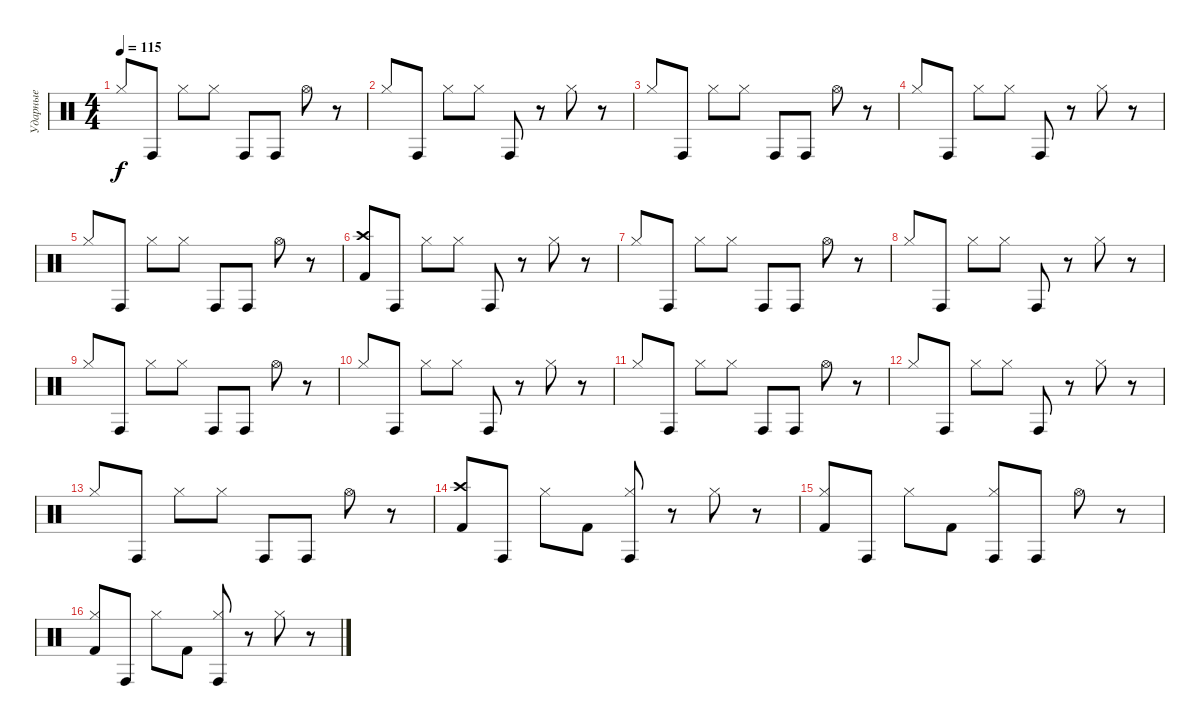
\track ("Ударные" "Ударные") {instrument percussion}
\staff {score}
\articulation defaults
\ts (4 4)
\tempo 115
\clef neutral
\ks c "Hi-Hat (closed)".8{dy f} "Conga high (hit)".8 "Hi-Hat (closed)".8 "Hi-Hat (closed)".8 "Conga high (hit)".8 "Conga high (hit)".8 "Hi-Hat (open)".8
r.8 |
"Hi-Hat (closed)".8 "Conga high (hit)".8 "Hi-Hat (closed)".8 "Hi-Hat (closed)".8 "Conga high (hit)".8 r.8 "Hi-Hat (closed)".8 r.8 |
"Hi-Hat (closed)".8 "Conga high (hit)".8 "Hi-Hat (closed)".8 "Hi-Hat (closed)".8 "Conga high (hit)".8 "Conga high (hit)".8 "Hi-Hat (open)".8 r.8 |
"Hi-Hat (closed)".8 "Conga high (hit)".8 "Hi-Hat (closed)".8 "Hi-Hat (closed)".8 "Conga high (hit)".8 r.8 "Hi-Hat (closed)".8 r.8 |
"Hi-Hat (closed)".8 "Conga high (hit)".8 "Hi-Hat (closed)".8 "Hi-Hat (closed)".8 "Conga high (hit)".8 "Conga high (hit)".8 "Hi-Hat (open)".8 r.8 |
("Crash high (hit)" "Kick (hit) 2").8 "Conga high (hit)".8 "Hi-Hat (closed)".8 "Hi-Hat (closed)".8 "Conga high (hit)".8 r.8 "Hi-Hat (closed)".8 r.8 |
"Hi-Hat (closed)".8 "Conga high (hit)".8 "Hi-Hat (closed)".8 "Hi-Hat (closed)".8 "Conga high (hit)".8 "Conga high (hit)".8 "Hi-Hat (open)".8 r.8 |
"Hi-Hat (closed)".8 "Conga high (hit)".8 "Hi-Hat (closed)".8 "Hi-Hat (closed)".8 "Conga high (hit)".8 r.8 "Hi-Hat (closed)".8 r.8 |
"Hi-Hat (closed)".8 "Conga high (hit)".8 "Hi-Hat (closed)".8 "Hi-Hat (closed)".8 "Conga high (hit)".8 "Conga high (hit)".8 "Hi-Hat (open)".8 r.8 |
"Hi-Hat (closed)".8 "Conga high (hit)".8 "Hi-Hat (closed)".8 "Hi-Hat (closed)".8 "Conga high (hit)".8 r.8 "Hi-Hat (closed)".8 r.8 |
"Hi-Hat (closed)".8 "Conga high (hit)".8 "Hi-Hat (closed)".8 "Hi-Hat (closed)".8 "Conga high (hit)".8 "Conga high (hit)".8 "Hi-Hat (open)".8 r.8 |
"Hi-Hat (closed)".8 "Conga high (hit)".8 "Hi-Hat (closed)".8 "Hi-Hat (closed)".8 "Conga high (hit)".8 r.8 "Hi-Hat (closed)".8 r.8 |
"Hi-Hat (closed)".8 "Conga high (hit)".8 "Hi-Hat (closed)".8 "Hi-Hat (closed)".8 "Conga high (hit)".8 "Conga high (hit)".8 "Hi-Hat (open)".8 r.8 |
("Crash high (hit)" "Kick (hit) 2").8 "Conga high (hit)".8 "Hi-Hat (closed)".8 "Kick (hit) 2".8 ("Hi-Hat (closed)" "Conga high (hit)").8 r.8 "Hi-Hat (closed)".8 r.8 |
("Hi-Hat (closed)" "Kick (hit) 2").8 "Conga high (hit)".8 "Hi-Hat (closed)".8 "Kick (hit) 2".8 ("Hi-Hat (closed)" "Conga high (hit)").8 "Conga high (hit)".8 "Hi-Hat (open)".8 r.8 |
("Hi-Hat (closed)" "Kick (hit) 2").8 "Conga high (hit)".8 "Hi-Hat (closed)".8 "Kick (hit) 2".8 ("Hi-Hat (closed)" "Conga high (hit)").8 r.8 "Hi-Hat (closed)".8 r.8
